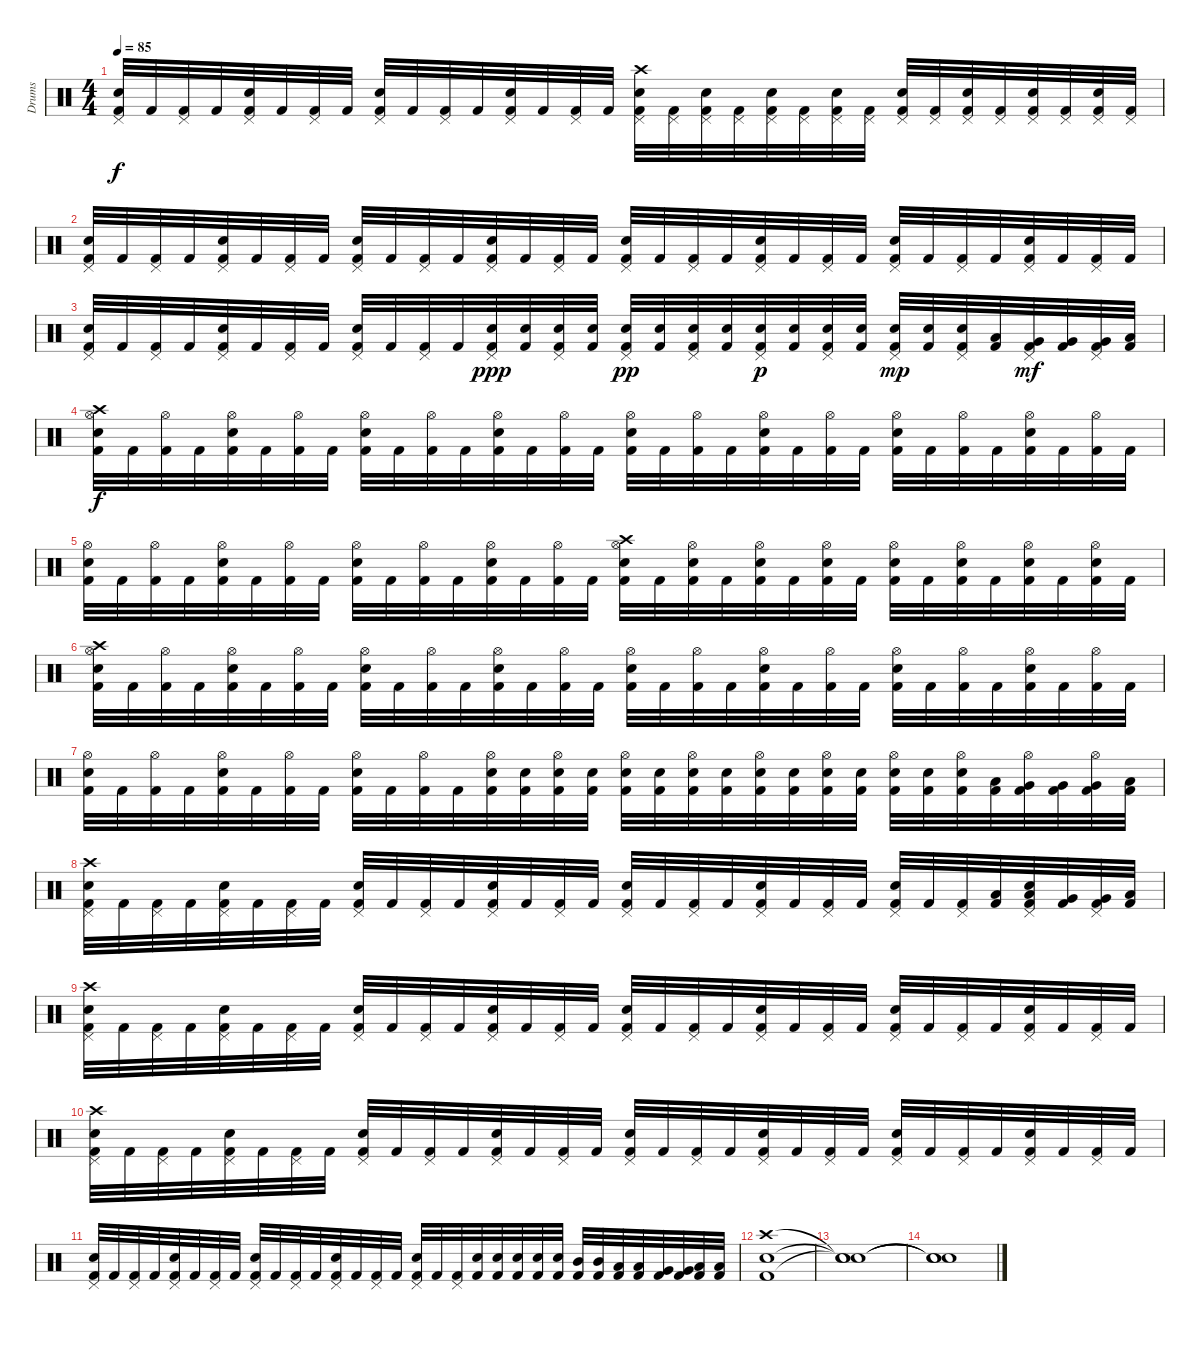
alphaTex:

\track ("Drums" "Drums") {instrument percussion}
\staff {score}
\articulation defaults
\ts (4 4)
\tempo 85
\clef neutral
\ks c
("Pedal Hi-Hat (hit)" "Electric Snare (hit)" "Kick (hit) 2").32{dy f} "Kick (hit) 2".32 ("Pedal Hi-Hat (hit)" "Kick (hit) 2").32 "Kick (hit) 2".32 ("Pedal Hi-Hat (hit)" "Electric Snare (hit)" "Kick (hit) 2").32 "Kick (hit) 2".32 ("Pedal Hi-Hat (hit)" "Kick (hit) 2").32 "Kick (hit) 2".32 ("Pedal Hi-Hat (hit)" "Electric Snare (hit)" "Kick (hit) 2").32 "Kick (hit) 2".32 ("Pedal Hi-Hat (hit)" "Kick (hit) 2").32 "Kick (hit) 2".32 ("Pedal Hi-Hat (hit)" "Electric Snare (hit)" "Kick (hit) 2").32 "Kick (hit) 2".32 ("Pedal Hi-Hat (hit)" "Kick (hit) 2").32 "Kick (hit) 2".32 ("Pedal Hi-Hat (hit)" "Electric Snare (hit)" "Crash high (hit)" "Kick (hit) 2").32 ("Pedal Hi-Hat (hit)" "Kick (hit) 2").32 ("Pedal Hi-Hat (hit)" "Electric Snare (hit)" "Kick (hit) 2").32 ("Pedal Hi-Hat (hit)" "Kick (hit) 2").32 ("Pedal Hi-Hat (hit)" "Electric Snare (hit)" "Kick (hit) 2").32 ("Pedal Hi-Hat (hit)" "Kick (hit) 2").32 ("Pedal Hi-Hat (hit)" "Electric Snare (hit)" "Kick (hit) 2").32 ("Pedal Hi-Hat (hit)" "Kick (hit) 2").32 ("Pedal Hi-Hat (hit)" "Electric Snare (hit)" "Kick (hit) 2").32 ("Pedal Hi-Hat (hit)" "Kick (hit) 2").32 ("Pedal Hi-Hat (hit)" "Electric Snare (hit)" "Kick (hit) 2").32 ("Pedal Hi-Hat (hit)" "Kick (hit) 2").32 ("Pedal Hi-Hat (hit)" "Electric Snare (hit)" "Kick (hit) 2").32 ("Pedal Hi-Hat (hit)" "Kick (hit) 2").32 ("Pedal Hi-Hat (hit)" "Electric Snare (hit)" "Kick (hit) 2").32 ("Pedal Hi-Hat (hit)" "Kick (hit) 2").32 |
("Pedal Hi-Hat (hit)" "Electric Snare (hit)" "Kick (hit) 2").32 "Kick (hit) 2".32 ("Pedal Hi-Hat (hit)" "Kick (hit) 2").32 "Kick (hit) 2".32 ("Pedal Hi-Hat (hit)" "Electric Snare (hit)" "Kick (hit) 2").32 "Kick (hit) 2".32 ("Pedal Hi-Hat (hit)" "Kick (hit) 2").32 "Kick (hit) 2".32 ("Pedal Hi-Hat (hit)" "Electric Snare (hit)" "Kick (hit) 2").32 "Kick (hit) 2".32 ("Pedal Hi-Hat (hit)" "Kick (hit) 2").32 "Kick (hit) 2".32 ("Pedal Hi-Hat (hit)" "Electric Snare (hit)" "Kick (hit) 2").32 "Kick (hit) 2".32 ("Pedal Hi-Hat (hit)" "Kick (hit) 2").32 "Kick (hit) 2".32 ("Pedal Hi-Hat (hit)" "Electric Snare (hit)" "Kick (hit) 2").32 "Kick (hit) 2".32 ("Pedal Hi-Hat (hit)" "Kick (hit) 2").32 "Kick (hit) 2".32 ("Pedal Hi-Hat (hit)" "Electric Snare (hit)" "Kick (hit) 2").32 "Kick (hit) 2".32 ("Pedal Hi-Hat (hit)" "Kick (hit) 2").32 "Kick (hit) 2".32 ("Pedal Hi-Hat (hit)" "Electric Snare (hit)" "Kick (hit) 2").32 "Kick (hit) 2".32 ("Pedal Hi-Hat (hit)" "Kick (hit) 2").32 "Kick (hit) 2".32 ("Pedal Hi-Hat (hit)" "Electric Snare (hit)" "Kick (hit) 2").32 "Kick (hit) 2".32 ("Pedal Hi-Hat (hit)" "Kick (hit) 2").32 "Kick (hit) 2".32 |
("Pedal Hi-Hat (hit)" "Electric Snare (hit)" "Kick (hit) 2").32 "Kick (hit) 2".32 ("Pedal Hi-Hat (hit)" "Kick (hit) 2").32 "Kick (hit) 2".32 ("Pedal Hi-Hat (hit)" "Electric Snare (hit)" "Kick (hit) 2").32 "Kick (hit) 2".32 ("Pedal Hi-Hat (hit)" "Kick (hit) 2").32 "Kick (hit) 2".32 ("Pedal Hi-Hat (hit)" "Electric Snare (hit)" "Kick (hit) 2").32 "Kick (hit) 2".32 ("Pedal Hi-Hat (hit)" "Kick (hit) 2").32 "Kick (hit) 2".32 ("Pedal Hi-Hat (hit)" "Electric Snare (hit)" "Kick (hit) 2").32{dy ppp} ("Electric Snare (hit)" "Kick (hit) 2").32 ("Pedal Hi-Hat (hit)" "Electric Snare (hit)" "Kick (hit) 2").32 ("Electric Snare (hit)" "Kick (hit) 2").32 ("Pedal Hi-Hat (hit)" "Electric Snare (hit)" "Kick (hit) 2").32{dy pp} ("Electric Snare (hit)" "Kick (hit) 2").32 ("Pedal Hi-Hat (hit)" "Electric Snare (hit)" "Kick (hit) 2").32 ("Electric Snare (hit)" "Kick (hit) 2").32 ("Pedal Hi-Hat (hit)" "Electric Snare (hit)" "Kick (hit) 2").32{dy p} ("Electric Snare (hit)" "Kick (hit) 2").32 ("Pedal Hi-Hat (hit)" "Electric Snare (hit)" "Kick (hit) 2").32 ("Electric Snare (hit)" "Kick (hit) 2").32 ("Pedal Hi-Hat (hit)" "Electric Snare (hit)" "Kick (hit) 2").32{dy mp} ("Electric Snare (hit)" "Kick (hit) 2").32 ("Pedal Hi-Hat (hit)" "Electric Snare (hit)" "Kick (hit) 2").32 ("Low Tom (hit)" "Kick (hit) 2").32 ("Pedal Hi-Hat (hit)" "Very Low Tom (hit)" "Kick (hit) 2").32{dy mf} ("Very Low Tom (hit)" "Kick (hit) 2").32 ("Pedal Hi-Hat (hit)" "Very Low Tom (hit)" "Kick (hit) 2").32 ("Low Floor Tom (hit)" "Kick (hit) 2").32 |
("Hi-Hat (open)" "Electric Snare (hit)" "Crash high (hit)" "Kick (hit) 2").32{dy f} "Kick (hit) 2".32 ("Hi-Hat (open)" "Kick (hit) 2").32 "Kick (hit) 2".32 ("Hi-Hat (open)" "Electric Snare (hit)" "Kick (hit) 2").32 "Kick (hit) 2".32 ("Hi-Hat (open)" "Kick (hit) 2").32 "Kick (hit) 2".32 ("Hi-Hat (open)" "Electric Snare (hit)" "Kick (hit) 2").32 "Kick (hit) 2".32 ("Hi-Hat (open)" "Kick (hit) 2").32 "Kick (hit) 2".32 ("Hi-Hat (open)" "Electric Snare (hit)" "Kick (hit) 2").32 "Kick (hit) 2".32 ("Hi-Hat (open)" "Kick (hit) 2").32 "Kick (hit) 2".32 ("Hi-Hat (open)" "Electric Snare (hit)" "Kick (hit) 2").32 "Kick (hit) 2".32 ("Hi-Hat (open)" "Kick (hit) 2").32 "Kick (hit) 2".32 ("Hi-Hat (open)" "Electric Snare (hit)" "Kick (hit) 2").32 "Kick (hit) 2".32 ("Hi-Hat (open)" "Kick (hit) 2").32 "Kick (hit) 2".32 ("Hi-Hat (open)" "Electric Snare (hit)" "Kick (hit) 2").32 "Kick (hit) 2".32 ("Hi-Hat (open)" "Kick (hit) 2").32 "Kick (hit) 2".32 ("Hi-Hat (open)" "Electric Snare (hit)" "Kick (hit) 2").32 "Kick (hit) 2".32 ("Hi-Hat (open)" "Kick (hit) 2").32 "Kick (hit) 2".32 |
("Hi-Hat (open)" "Electric Snare (hit)" "Kick (hit) 2").32 "Kick (hit) 2".32 ("Hi-Hat (open)" "Kick (hit) 2").32 "Kick (hit) 2".32 ("Hi-Hat (open)" "Electric Snare (hit)" "Kick (hit) 2").32 "Kick (hit) 2".32 ("Hi-Hat (open)" "Kick (hit) 2").32 "Kick (hit) 2".32 ("Hi-Hat (open)" "Electric Snare (hit)" "Kick (hit) 2").32 "Kick (hit) 2".32 ("Hi-Hat (open)" "Kick (hit) 2").32 "Kick (hit) 2".32 ("Hi-Hat (open)" "Electric Snare (hit)" "Kick (hit) 2").32 "Kick (hit) 2".32 ("Hi-Hat (open)" "Kick (hit) 2").32 "Kick (hit) 2".32 ("Hi-Hat (open)" "Electric Snare (hit)" "Crash high (hit)" "Kick (hit) 2").32 "Kick (hit) 2".32 ("Hi-Hat (open)" "Electric Snare (hit)" "Kick (hit) 2").32 "Kick (hit) 2".32 ("Hi-Hat (open)" "Electric Snare (hit)" "Kick (hit) 2").32 "Kick (hit) 2".32 ("Hi-Hat (open)" "Electric Snare (hit)" "Kick (hit) 2").32 "Kick (hit) 2".32 ("Hi-Hat (open)" "Electric Snare (hit)" "Kick (hit) 2").32 "Kick (hit) 2".32 ("Hi-Hat (open)" "Electric Snare (hit)" "Kick (hit) 2").32 "Kick (hit) 2".32 ("Hi-Hat (open)" "Electric Snare (hit)" "Kick (hit) 2").32 "Kick (hit) 2".32 ("Hi-Hat (open)" "Electric Snare (hit)" "Kick (hit) 2").32 "Kick (hit) 2".32 |
("Hi-Hat (open)" "Electric Snare (hit)" "Crash high (hit)" "Kick (hit) 2").32 "Kick (hit) 2".32 ("Hi-Hat (open)" "Kick (hit) 2").32 "Kick (hit) 2".32 ("Hi-Hat (open)" "Electric Snare (hit)" "Kick (hit) 2").32 "Kick (hit) 2".32 ("Hi-Hat (open)" "Kick (hit) 2").32 "Kick (hit) 2".32 ("Hi-Hat (open)" "Electric Snare (hit)" "Kick (hit) 2").32 "Kick (hit) 2".32 ("Hi-Hat (open)" "Kick (hit) 2").32 "Kick (hit) 2".32 ("Hi-Hat (open)" "Electric Snare (hit)" "Kick (hit) 2").32 "Kick (hit) 2".32 ("Hi-Hat (open)" "Kick (hit) 2").32 "Kick (hit) 2".32 ("Hi-Hat (open)" "Electric Snare (hit)" "Kick (hit) 2").32 "Kick (hit) 2".32 ("Hi-Hat (open)" "Kick (hit) 2").32 "Kick (hit) 2".32 ("Hi-Hat (open)" "Electric Snare (hit)" "Kick (hit) 2").32 "Kick (hit) 2".32 ("Hi-Hat (open)" "Kick (hit) 2").32 "Kick (hit) 2".32 ("Hi-Hat (open)" "Electric Snare (hit)" "Kick (hit) 2").32 "Kick (hit) 2".32 ("Hi-Hat (open)" "Kick (hit) 2").32 "Kick (hit) 2".32 ("Hi-Hat (open)" "Electric Snare (hit)" "Kick (hit) 2").32 "Kick (hit) 2".32 ("Hi-Hat (open)" "Kick (hit) 2").32 "Kick (hit) 2".32 |
("Hi-Hat (open)" "Electric Snare (hit)" "Kick (hit) 2").32 "Kick (hit) 2".32 ("Hi-Hat (open)" "Kick (hit) 2").32 "Kick (hit) 2".32 ("Hi-Hat (open)" "Electric Snare (hit)" "Kick (hit) 2").32 "Kick (hit) 2".32 ("Hi-Hat (open)" "Kick (hit) 2").32 "Kick (hit) 2".32 ("Hi-Hat (open)" "Electric Snare (hit)" "Kick (hit) 2").32 "Kick (hit) 2".32 ("Hi-Hat (open)" "Kick (hit) 2").32 "Kick (hit) 2".32 ("Hi-Hat (open)" "Electric Snare (hit)" "Kick (hit) 2").32 ("Electric Snare (hit)" "Kick (hit) 2").32 ("Hi-Hat (open)" "Electric Snare (hit)" "Kick (hit) 2").32 ("Electric Snare (hit)" "Kick (hit) 2").32 ("Hi-Hat (open)" "Electric Snare (hit)" "Kick (hit) 2").32 ("Electric Snare (hit)" "Kick (hit) 2").32 ("Hi-Hat (open)" "Electric Snare (hit)" "Kick (hit) 2").32 ("Electric Snare (hit)" "Kick (hit) 2").32 ("Hi-Hat (open)" "Electric Snare (hit)" "Kick (hit) 2").32 ("Electric Snare (hit)" "Kick (hit) 2").32 ("Hi-Hat (open)" "Electric Snare (hit)" "Kick (hit) 2").32 ("Electric Snare (hit)" "Kick (hit) 2").32 ("Hi-Hat (open)" "Electric Snare (hit)" "Kick (hit) 2").32 ("Electric Snare (hit)" "Kick (hit) 2").32 ("Hi-Hat (open)" "Electric Snare (hit)" "Kick (hit) 2").32 ("Low Tom (hit)" "Kick (hit) 2").32 ("Hi-Hat (open)" "Very Low Tom (hit)" "Kick (hit) 2").32 ("Very Low Tom (hit)" "Kick (hit) 2").32 ("Hi-Hat (open)" "Very Low Tom (hit)" "Kick (hit) 2").32 ("Low Floor Tom (hit)" "Kick (hit) 2").32 |
("Pedal Hi-Hat (hit)" "Electric Snare (hit)" "Crash high (hit)" "Kick (hit) 2").32 "Kick (hit) 2".32 ("Pedal Hi-Hat (hit)" "Kick (hit) 2").32 "Kick (hit) 2".32 ("Pedal Hi-Hat (hit)" "Electric Snare (hit)" "Kick (hit) 2").32 "Kick (hit) 2".32 ("Pedal Hi-Hat (hit)" "Kick (hit) 2").32 "Kick (hit) 2".32 ("Pedal Hi-Hat (hit)" "Electric Snare (hit)" "Kick (hit) 2").32 "Kick (hit) 2".32 ("Pedal Hi-Hat (hit)" "Kick (hit) 2").32 "Kick (hit) 2".32 ("Pedal Hi-Hat (hit)" "Electric Snare (hit)" "Kick (hit) 2").32 "Kick (hit) 2".32 ("Pedal Hi-Hat (hit)" "Kick (hit) 2").32 "Kick (hit) 2".32 ("Pedal Hi-Hat (hit)" "Electric Snare (hit)" "Kick (hit) 2").32 "Kick (hit) 2".32 ("Pedal Hi-Hat (hit)" "Kick (hit) 2").32 "Kick (hit) 2".32 ("Pedal Hi-Hat (hit)" "Electric Snare (hit)" "Kick (hit) 2").32 "Kick (hit) 2".32 ("Pedal Hi-Hat (hit)" "Kick (hit) 2").32 "Kick (hit) 2".32 ("Pedal Hi-Hat (hit)" "Electric Snare (hit)" "Kick (hit) 2").32 "Kick (hit) 2".32 ("Pedal Hi-Hat (hit)" "Kick (hit) 2").32 ("Low Tom (hit)" "Kick (hit) 2").32 ("Pedal Hi-Hat (hit)" "Electric Snare (hit)" "Low Tom (hit)" "Kick (hit) 2").32 ("Very Low Tom (hit)" "Kick (hit) 2").32 ("Pedal Hi-Hat (hit)" "Very Low Tom (hit)" "Kick (hit) 2").32 ("Low Floor Tom (hit)" "Kick (hit) 2").32 |
("Pedal Hi-Hat (hit)" "Electric Snare (hit)" "Crash high (hit)" "Kick (hit) 2").32 "Kick (hit) 2".32 ("Pedal Hi-Hat (hit)" "Kick (hit) 2").32 "Kick (hit) 2".32 ("Pedal Hi-Hat (hit)" "Electric Snare (hit)" "Kick (hit) 2").32 "Kick (hit) 2".32 ("Pedal Hi-Hat (hit)" "Kick (hit) 2").32 "Kick (hit) 2".32 ("Pedal Hi-Hat (hit)" "Electric Snare (hit)" "Kick (hit) 2").32 "Kick (hit) 2".32 ("Pedal Hi-Hat (hit)" "Kick (hit) 2").32 "Kick (hit) 2".32 ("Pedal Hi-Hat (hit)" "Electric Snare (hit)" "Kick (hit) 2").32 "Kick (hit) 2".32 ("Pedal Hi-Hat (hit)" "Kick (hit) 2").32 "Kick (hit) 2".32 ("Pedal Hi-Hat (hit)" "Electric Snare (hit)" "Kick (hit) 2").32 "Kick (hit) 2".32 ("Pedal Hi-Hat (hit)" "Kick (hit) 2").32 "Kick (hit) 2".32 ("Pedal Hi-Hat (hit)" "Electric Snare (hit)" "Kick (hit) 2").32 "Kick (hit) 2".32 ("Pedal Hi-Hat (hit)" "Kick (hit) 2").32 "Kick (hit) 2".32 ("Pedal Hi-Hat (hit)" "Electric Snare (hit)" "Kick (hit) 2").32 "Kick (hit) 2".32 ("Pedal Hi-Hat (hit)" "Kick (hit) 2").32 "Kick (hit) 2".32 ("Pedal Hi-Hat (hit)" "Electric Snare (hit)" "Kick (hit) 2").32 "Kick (hit) 2".32 ("Pedal Hi-Hat (hit)" "Kick (hit) 2").32 "Kick (hit) 2".32 |
("Pedal Hi-Hat (hit)" "Electric Snare (hit)" "Crash high (hit)" "Kick (hit) 2").32 "Kick (hit) 2".32 ("Pedal Hi-Hat (hit)" "Kick (hit) 2").32 "Kick (hit) 2".32 ("Pedal Hi-Hat (hit)" "Electric Snare (hit)" "Kick (hit) 2").32 "Kick (hit) 2".32 ("Pedal Hi-Hat (hit)" "Kick (hit) 2").32 "Kick (hit) 2".32 ("Pedal Hi-Hat (hit)" "Electric Snare (hit)" "Kick (hit) 2").32 "Kick (hit) 2".32 ("Pedal Hi-Hat (hit)" "Kick (hit) 2").32 "Kick (hit) 2".32 ("Pedal Hi-Hat (hit)" "Electric Snare (hit)" "Kick (hit) 2").32 "Kick (hit) 2".32 ("Pedal Hi-Hat (hit)" "Kick (hit) 2").32 "Kick (hit) 2".32 ("Pedal Hi-Hat (hit)" "Electric Snare (hit)" "Kick (hit) 2").32 "Kick (hit) 2".32 ("Pedal Hi-Hat (hit)" "Kick (hit) 2").32 "Kick (hit) 2".32 ("Pedal Hi-Hat (hit)" "Electric Snare (hit)" "Kick (hit) 2").32 "Kick (hit) 2".32 ("Pedal Hi-Hat (hit)" "Kick (hit) 2").32 "Kick (hit) 2".32 ("Pedal Hi-Hat (hit)" "Electric Snare (hit)" "Kick (hit) 2").32 "Kick (hit) 2".32 ("Pedal Hi-Hat (hit)" "Kick (hit) 2").32 "Kick (hit) 2".32 ("Pedal Hi-Hat (hit)" "Electric Snare (hit)" "Kick (hit) 2").32 "Kick (hit) 2".32 ("Pedal Hi-Hat (hit)" "Kick (hit) 2").32 "Kick (hit) 2".32 |
("Pedal Hi-Hat (hit)" "Electric Snare (hit)" "Kick (hit) 2").32 "Kick (hit) 2".32 ("Pedal Hi-Hat (hit)" "Kick (hit) 2").32 "Kick (hit) 2".32 ("Pedal Hi-Hat (hit)" "Electric Snare (hit)" "Kick (hit) 2").32 "Kick (hit) 2".32 ("Pedal Hi-Hat (hit)" "Kick (hit) 2").32 "Kick (hit) 2".32 ("Pedal Hi-Hat (hit)" "Electric Snare (hit)" "Kick (hit) 2").32 "Kick (hit) 2".32 ("Pedal Hi-Hat (hit)" "Kick (hit) 2").32 "Kick (hit) 2".32 ("Pedal Hi-Hat (hit)" "Electric Snare (hit)" "Kick (hit) 2").32 "Kick (hit) 2".32 ("Pedal Hi-Hat (hit)" "Kick (hit) 2").32 "Kick (hit) 2".32 ("Pedal Hi-Hat (hit)" "Electric Snare (hit)" "Kick (hit) 2").32 "Kick (hit) 2".32 ("Pedal Hi-Hat (hit)" "Kick (hit) 2").32 ("Electric Snare (hit)" "Kick (hit) 2").32 ("Electric Snare (hit)" "Kick (hit) 2").32 ("Electric Snare (hit)" "Kick (hit) 2").32 ("Electric Snare (hit)" "Kick (hit) 2").32 ("Electric Snare (hit)" "Kick (hit) 2").32 ("Mid Tom (hit)" "Kick (hit) 2").32 ("Mid Tom (hit)" "Kick (hit) 2").32 ("Low Tom (hit)" "Kick (hit) 2").32 ("Low Tom (hit)" "Kick (hit) 2").32 ("Very Low Tom (hit)" "Kick (hit) 2").32 ("Very Low Tom (hit)" "Kick (hit) 2").32 ("Low Floor Tom (hit)" "Kick (hit) 2").32 ("Low Floor Tom (hit)" "Kick (hit) 2").32 |
("Crash high (hit)" "Kick (hit) 2" "Electric Snare (hit)").1{volume 1} |
("Snare (hit)"{t} "Snare (hit)"{t} "Snare (hit)"{t}).1 |
("Snare (hit)"{t} "Snare (hit)"{t} "Snare (hit)"{t}).1
